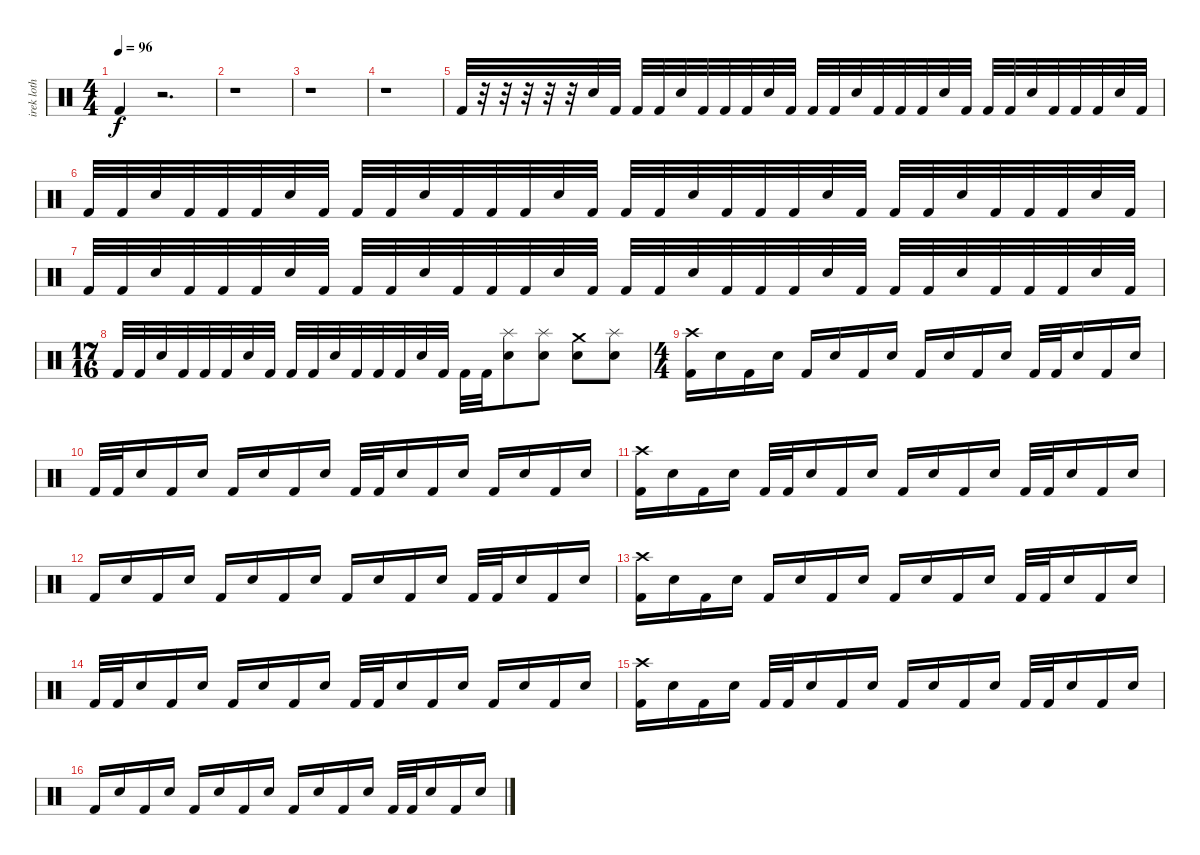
\track ("irek loth" "irek loth") {instrument percussion}
\staff {score}
\articulation defaults
\ts (4 4)
\tempo 96
\clef neutral
\ks c "Kick (hit) 2".4{dy f}
r.2{d} |
r.1 |
r.1 |
r.1 |
"Kick (hit) 2".32 r.32 r.32 r.32 r.32 r.32 "Snare (hit) 2".32 "Kick (hit) 2".32 "Kick (hit) 2".32 "Kick (hit) 2".32 "Snare (hit) 2".32 "Kick (hit) 2".32 "Kick (hit) 2".32 "Kick (hit) 2".32 "Snare (hit) 2".32 "Kick (hit) 2".32 "Kick (hit) 2".32 "Kick (hit) 2".32 "Snare (hit) 2".32 "Kick (hit) 2".32 "Kick (hit) 2".32 "Kick (hit) 2".32 "Snare (hit) 2".32 "Kick (hit) 2".32 "Kick (hit) 2".32 "Kick (hit) 2".32 "Snare (hit) 2".32 "Kick (hit) 2".32 "Kick (hit) 2".32 "Kick (hit) 2".32 "Snare (hit) 2".32 "Kick (hit) 2".32 |
"Kick (hit) 2".32 "Kick (hit) 2".32 "Snare (hit) 2".32 "Kick (hit) 2".32 "Kick (hit) 2".32 "Kick (hit) 2".32 "Snare (hit) 2".32 "Kick (hit) 2".32 "Kick (hit) 2".32 "Kick (hit) 2".32 "Snare (hit) 2".32 "Kick (hit) 2".32 "Kick (hit) 2".32 "Kick (hit) 2".32 "Snare (hit) 2".32 "Kick (hit) 2".32 "Kick (hit) 2".32 "Kick (hit) 2".32 "Snare (hit) 2".32 "Kick (hit) 2".32 "Kick (hit) 2".32 "Kick (hit) 2".32 "Snare (hit) 2".32 "Kick (hit) 2".32 "Kick (hit) 2".32 "Kick (hit) 2".32 "Snare (hit) 2".32 "Kick (hit) 2".32 "Kick (hit) 2".32 "Kick (hit) 2".32 "Snare (hit) 2".32 "Kick (hit) 2".32 |
"Kick (hit) 2".32 "Kick (hit) 2".32 "Snare (hit) 2".32 "Kick (hit) 2".32 "Kick (hit) 2".32 "Kick (hit) 2".32 "Snare (hit) 2".32 "Kick (hit) 2".32 "Kick (hit) 2".32 "Kick (hit) 2".32 "Snare (hit) 2".32 "Kick (hit) 2".32 "Kick (hit) 2".32 "Kick (hit) 2".32 "Snare (hit) 2".32 "Kick (hit) 2".32 "Kick (hit) 2".32 "Kick (hit) 2".32 "Snare (hit) 2".32 "Kick (hit) 2".32 "Kick (hit) 2".32 "Kick (hit) 2".32 "Snare (hit) 2".32 "Kick (hit) 2".32 "Kick (hit) 2".32 "Kick (hit) 2".32 "Snare (hit) 2".32 "Kick (hit) 2".32 "Kick (hit) 2".32 "Kick (hit) 2".32 "Snare (hit) 2".32 "Kick (hit) 2".32 |
\ts (17 16)
"Kick (hit) 2".32 "Kick (hit) 2".32 "Snare (hit) 2".32 "Kick (hit) 2".32 "Kick (hit) 2".32 "Kick (hit) 2".32 "Snare (hit) 2".32 "Kick (hit) 2".32 "Kick (hit) 2".32 "Kick (hit) 2".32 "Snare (hit) 2".32 "Kick (hit) 2".32 "Kick (hit) 2".32 "Kick (hit) 2".32 "Snare (hit) 2".32 "Kick (hit) 2".32 "Kick (hit) 2".32 "Kick (hit) 2".32 ("Snare (hit) 2" "Splash (hit)").8 ("Snare (hit) 2" "Splash (hit)").8 ("Snare (hit) 2" "Crash medium (hit)").8 ("Snare (hit) 2" "Splash (hit)").8 |
\ts (4 4)
("Crash high (hit)" "Kick (hit) 2").16 "Snare (hit) 2".16 "Kick (hit) 2".16 "Snare (hit) 2".16 "Kick (hit) 2".16 "Snare (hit) 2".16 "Kick (hit) 2".16 "Snare (hit) 2".16 "Kick (hit) 2".16 "Snare (hit) 2".16 "Kick (hit) 2".16 "Snare (hit) 2".16 "Kick (hit) 2".32 "Kick (hit) 2".32 "Snare (hit) 2".16 "Kick (hit) 2".16 "Snare (hit) 2".16 |
"Kick (hit) 2".32 "Kick (hit) 2".32 "Snare (hit) 2".16 "Kick (hit) 2".16 "Snare (hit) 2".16 "Kick (hit) 2".16 "Snare (hit) 2".16 "Kick (hit) 2".16 "Snare (hit) 2".16 "Kick (hit) 2".32 "Kick (hit) 2".32 "Snare (hit) 2".16 "Kick (hit) 2".16 "Snare (hit) 2".16 "Kick (hit) 2".16 "Snare (hit) 2".16 "Kick (hit) 2".16 "Snare (hit) 2".16 |
("Crash high (hit)" "Kick (hit) 2").16 "Snare (hit) 2".16 "Kick (hit) 2".16 "Snare (hit) 2".16 "Kick (hit) 2".32 "Kick (hit) 2".32 "Snare (hit) 2".16 "Kick (hit) 2".16 "Snare (hit) 2".16 "Kick (hit) 2".16 "Snare (hit) 2".16 "Kick (hit) 2".16 "Snare (hit) 2".16 "Kick (hit) 2".32 "Kick (hit) 2".32 "Snare (hit) 2".16 "Kick (hit) 2".16 "Snare (hit) 2".16 |
"Kick (hit) 2".16 "Snare (hit) 2".16 "Kick (hit) 2".16 "Snare (hit) 2".16 "Kick (hit) 2".16 "Snare (hit) 2".16 "Kick (hit) 2".16 "Snare (hit) 2".16 "Kick (hit) 2".16 "Snare (hit) 2".16 "Kick (hit) 2".16 "Snare (hit) 2".16 "Kick (hit) 2".32 "Kick (hit) 2".32 "Snare (hit) 2".16 "Kick (hit) 2".16 "Snare (hit) 2".16 |
("Crash high (hit)" "Kick (hit) 2").16 "Snare (hit) 2".16 "Kick (hit) 2".16 "Snare (hit) 2".16 "Kick (hit) 2".16 "Snare (hit) 2".16 "Kick (hit) 2".16 "Snare (hit) 2".16 "Kick (hit) 2".16 "Snare (hit) 2".16 "Kick (hit) 2".16 "Snare (hit) 2".16 "Kick (hit) 2".32 "Kick (hit) 2".32 "Snare (hit) 2".16 "Kick (hit) 2".16 "Snare (hit) 2".16 |
"Kick (hit) 2".32 "Kick (hit) 2".32 "Snare (hit) 2".16 "Kick (hit) 2".16 "Snare (hit) 2".16 "Kick (hit) 2".16 "Snare (hit) 2".16 "Kick (hit) 2".16 "Snare (hit) 2".16 "Kick (hit) 2".32 "Kick (hit) 2".32 "Snare (hit) 2".16 "Kick (hit) 2".16 "Snare (hit) 2".16 "Kick (hit) 2".16 "Snare (hit) 2".16 "Kick (hit) 2".16 "Snare (hit) 2".16 |
("Crash high (hit)" "Kick (hit) 2").16 "Snare (hit) 2".16 "Kick (hit) 2".16 "Snare (hit) 2".16 "Kick (hit) 2".32 "Kick (hit) 2".32 "Snare (hit) 2".16 "Kick (hit) 2".16 "Snare (hit) 2".16 "Kick (hit) 2".16 "Snare (hit) 2".16 "Kick (hit) 2".16 "Snare (hit) 2".16 "Kick (hit) 2".32 "Kick (hit) 2".32 "Snare (hit) 2".16 "Kick (hit) 2".16 "Snare (hit) 2".16 |
"Kick (hit) 2".16 "Snare (hit) 2".16 "Kick (hit) 2".16 "Snare (hit) 2".16 "Kick (hit) 2".16 "Snare (hit) 2".16 "Kick (hit) 2".16 "Snare (hit) 2".16 "Kick (hit) 2".16 "Snare (hit) 2".16 "Kick (hit) 2".16 "Snare (hit) 2".16 "Kick (hit) 2".32 "Kick (hit) 2".32 "Snare (hit) 2".16 "Kick (hit) 2".16 "Snare (hit) 2".16
